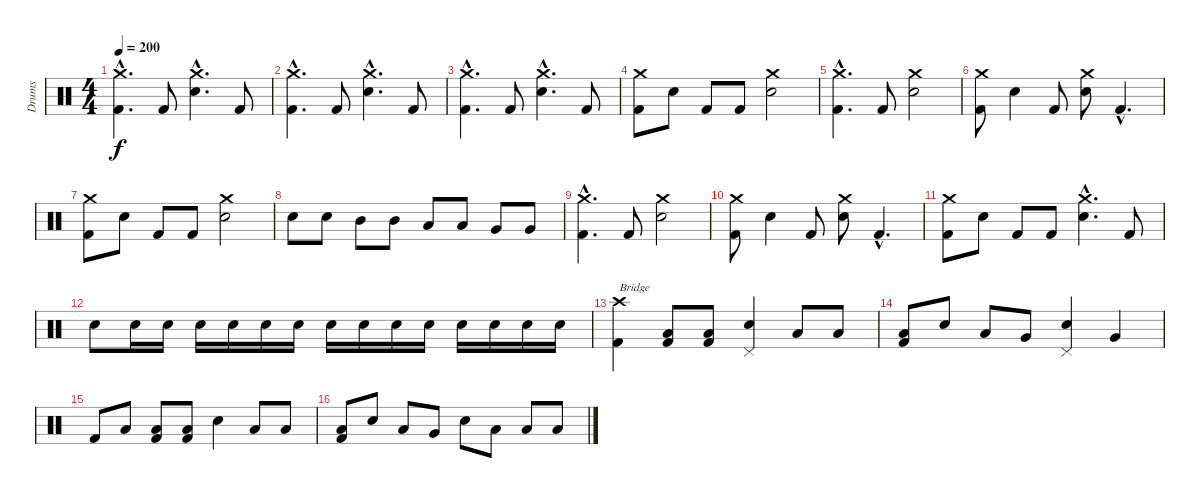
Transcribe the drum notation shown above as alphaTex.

\track ("Drums" "Drums") {instrument percussion}
\staff {score}
\articulation defaults
\ts (4 4)
\tempo 200
\clef neutral
\ks c
("Crash medium (hit)"{hac} "Kick (hit) 2"{hac}).4{d dy f} "Kick (hit) 2".8 ("Crash medium (hit)"{hac} "Electric Snare (hit)"{hac}).4{d} "Kick (hit) 2".8 |
("Crash medium (hit)"{hac} "Kick (hit) 2"{hac}).4{d} "Kick (hit) 2".8 ("Crash medium (hit)"{hac} "Electric Snare (hit)"{hac}).4{d} "Kick (hit) 2".8 |
("Crash medium (hit)"{hac} "Kick (hit) 2"{hac}).4{d} "Kick (hit) 2".8 ("Crash medium (hit)"{hac} "Electric Snare (hit)"{hac}).4{d} "Kick (hit) 2".8 |
("Crash medium (hit)" "Kick (hit) 2").8 "Electric Snare (hit)".8 "Kick (hit) 2".8 "Kick (hit) 2".8 ("Crash medium (hit)" "Electric Snare (hit)").2 |
("Crash medium (hit)"{hac} "Kick (hit) 2"{hac}).4{d} "Kick (hit) 2".8 ("Crash medium (hit)" "Electric Snare (hit)").2 |
("Crash medium (hit)" "Kick (hit) 2").8 "Electric Snare (hit)".4 "Kick (hit) 2".8 ("Crash medium (hit)" "Electric Snare (hit)").8 "Kick (hit) 2"{hac}.4{d} |
("Crash medium (hit)" "Kick (hit) 2").8 "Electric Snare (hit)".8 "Kick (hit) 2".8 "Kick (hit) 2".8 ("Crash medium (hit)" "Electric Snare (hit)").2 |
"Electric Snare (hit)".8 "Electric Snare (hit)".8 "Mid Tom (hit)".8 "Mid Tom (hit)".8 "Low Tom (hit)".8 "Low Tom (hit)".8 "Very Low Tom (hit)".8 "Very Low Tom (hit)".8 |
("Crash medium (hit)"{hac} "Kick (hit) 2"{hac}).4{d} "Kick (hit) 2".8 ("Crash medium (hit)" "Electric Snare (hit)").2 |
("Crash medium (hit)" "Kick (hit) 2").8 "Electric Snare (hit)".4 "Kick (hit) 2".8 ("Crash medium (hit)" "Electric Snare (hit)").8 "Kick (hit) 2"{hac}.4{d} |
("Crash medium (hit)" "Kick (hit) 2").8 "Electric Snare (hit)".8 "Kick (hit) 2".8 "Kick (hit) 2".8 ("Crash medium (hit)"{hac} "Electric Snare (hit)"{hac}).4{d} "Kick (hit) 2".8 |
"Electric Snare (hit)".8 "Electric Snare (hit)".16 "Electric Snare (hit)".16 "Electric Snare (hit)".16 "Electric Snare (hit)".16 "Electric Snare (hit)".16 "Electric Snare (hit)".16 "Electric Snare (hit)".16 "Electric Snare (hit)".16 "Electric Snare (hit)".16 "Electric Snare (hit)".16 "Electric Snare (hit)".16 "Electric Snare (hit)".16 "Electric Snare (hit)".16 "Electric Snare (hit)".16 |
("Crash high (hit)" "Kick (hit) 2").4{txt "Bridge"} ("Low Floor Tom (hit)" "Kick (hit) 2").8 ("Low Floor Tom (hit)" "Kick (hit) 2").8 ("Pedal Hi-Hat (hit)" "Electric Snare (hit)").4 "Low Tom (hit)".8 "Low Floor Tom (hit)".8 |
("Low Floor Tom (hit)" "Kick (hit) 2").8 "Electric Snare (hit)".8 "Low Tom (hit)".8 "Very Low Tom (hit)".8 ("Pedal Hi-Hat (hit)" "Electric Snare (hit)").4 "Very Low Tom (hit)".4 |
"Kick (hit) 2".8 "Low Floor Tom (hit)".8 ("Low Floor Tom (hit)" "Kick (hit) 2").8 ("Low Floor Tom (hit)" "Kick (hit) 2").8 "Electric Snare (hit)".4 "Low Tom (hit)".8 "Low Floor Tom (hit)".8 |
("Low Floor Tom (hit)" "Kick (hit) 2").8 "Electric Snare (hit)".8 "Low Tom (hit)".8 "Very Low Tom (hit)".8 "Electric Snare (hit)".8 "Low Floor Tom (hit)".8 "Low Floor Tom (hit)".8 "Low Floor Tom (hit)".8
